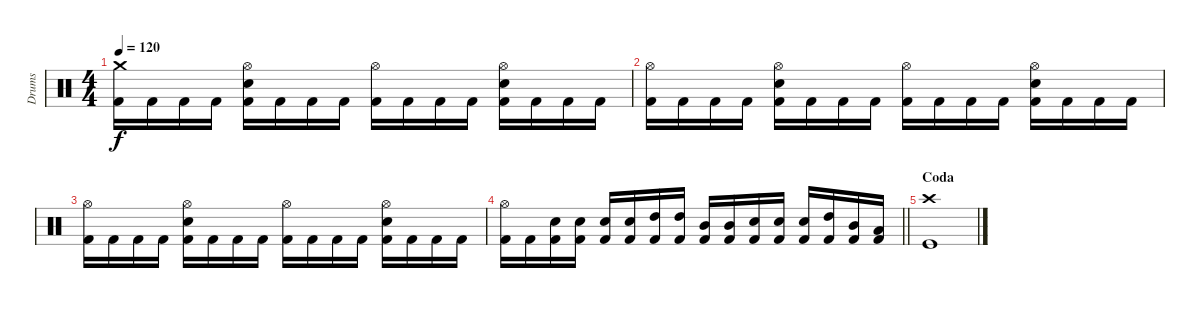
\track ("Drums" "Drums") {instrument percussion}
\staff {score}
\articulation defaults
\ts (4 4)
\tempo 120
\clef neutral
\ks c
("Kick (hit) 2" "Crash medium (hit)").16{dy f} "Kick (hit) 2".16 "Kick (hit) 2".16 "Kick (hit) 2".16 ("Kick (hit) 2" "Electric Snare (hit)" "Hi-Hat (open)").16 "Kick (hit) 2".16 "Kick (hit) 2".16 "Kick (hit) 2".16 ("Kick (hit) 2" "Hi-Hat (open)").16 "Kick (hit) 2".16 "Kick (hit) 2".16 "Kick (hit) 2".16 ("Kick (hit) 2" "Electric Snare (hit)" "Hi-Hat (open)").16 "Kick (hit) 2".16 "Kick (hit) 2".16 "Kick (hit) 2".16 |
("Kick (hit) 2" "Hi-Hat (open)").16 "Kick (hit) 2".16 "Kick (hit) 2".16 "Kick (hit) 2".16 ("Kick (hit) 2" "Electric Snare (hit)" "Hi-Hat (open)").16 "Kick (hit) 2".16 "Kick (hit) 2".16 "Kick (hit) 2".16 ("Kick (hit) 2" "Hi-Hat (open)").16 "Kick (hit) 2".16 "Kick (hit) 2".16 "Kick (hit) 2".16 ("Kick (hit) 2" "Electric Snare (hit)" "Hi-Hat (open)").16 "Kick (hit) 2".16 "Kick (hit) 2".16 "Kick (hit) 2".16 |
("Kick (hit) 2" "Hi-Hat (open)").16 "Kick (hit) 2".16 "Kick (hit) 2".16 "Kick (hit) 2".16 ("Kick (hit) 2" "Electric Snare (hit)" "Hi-Hat (open)").16 "Kick (hit) 2".16 "Kick (hit) 2".16 "Kick (hit) 2".16 ("Kick (hit) 2" "Hi-Hat (open)").16 "Kick (hit) 2".16 "Kick (hit) 2".16 "Kick (hit) 2".16 ("Kick (hit) 2" "Electric Snare (hit)" "Hi-Hat (open)").16 "Kick (hit) 2".16 "Kick (hit) 2".16 "Kick (hit) 2".16 |
\barLineRight lightlight
("Kick (hit) 2" "Hi-Hat (open)").16 "Kick (hit) 2".16 ("Kick (hit) 2" "Electric Snare (hit)").16 ("Kick (hit) 2" "Electric Snare (hit)").16 ("Kick (hit) 2" "Electric Snare (hit)").16 ("Kick (hit) 2" "Electric Snare (hit)").16 ("Kick (hit) 2" "High Tom (hit)").16 ("Kick (hit) 2" "High Tom (hit)").16 ("Kick (hit) 2" "Mid Tom (hit)").16 ("Kick (hit) 2" "Mid Tom (hit)").16 ("Kick (hit) 2" "Electric Snare (hit)").16 ("Kick (hit) 2" "Electric Snare (hit)").16 ("Kick (hit) 2" "Electric Snare (hit)").16 ("Kick (hit) 2" "High Tom (hit)").16 ("Kick (hit) 2" "Mid Tom (hit)").16 ("Kick (hit) 2" "Low Tom (hit)").16 |
\section ("" "Coda")
("Crash high (hit)" "Kick (hit)").1
